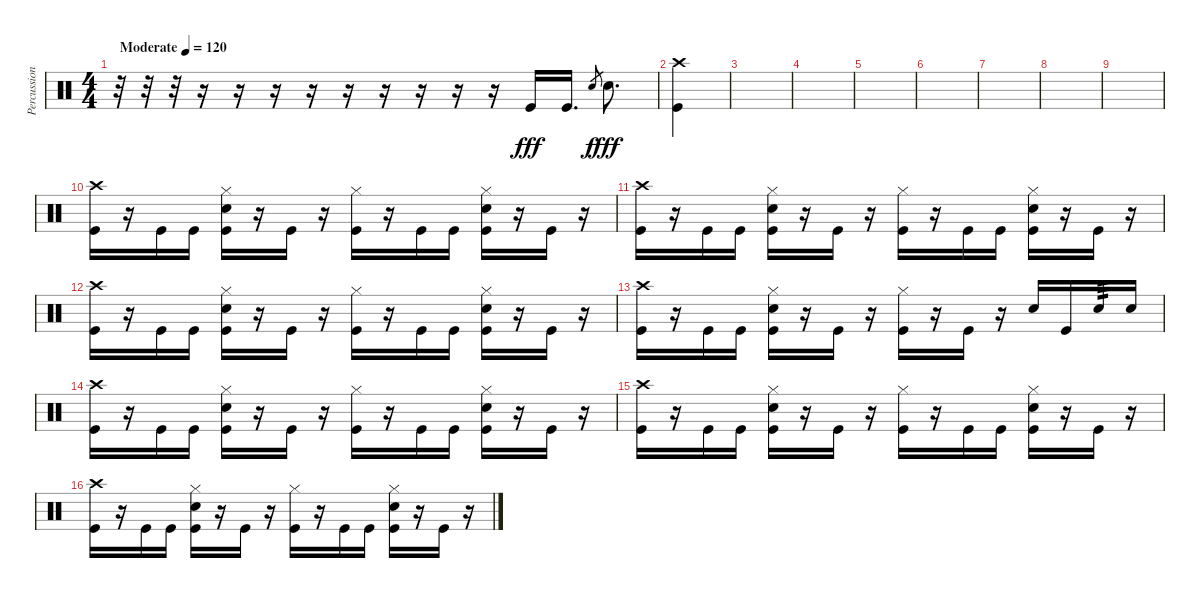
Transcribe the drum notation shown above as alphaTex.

\track ("Percussion" "Percussion") {instrument percussion}
\staff {score}
\articulation defaults
\ts (4 4)
\tempo (120 "Moderate")
\clef neutral
\ks c
r.32{dy fff} r.32 r.32 r.16 r.16 r.16 r.16 r.16 r.16 r.16 r.16 r.16 "Kick (hit)".16 "Kick (hit)".16{d} "Electric Snare (hit)".8{gr dy f} "Electric Snare (hit)".8{d dy fff} |
("Crash high (hit)" "Kick (hit)").4 |
|
|
|
|
|
|
|
("Crash high (hit)" "Kick (hit)").16 r.16 "Kick (hit)".16 "Kick (hit)".16 ("Hi-Hat (closed)" "Electric Snare (hit)" "Kick (hit)").16 r.16 "Kick (hit)".16 r.16 ("Hi-Hat (closed)" "Kick (hit)").16 r.16 "Kick (hit)".16 "Kick (hit)".16 ("Hi-Hat (closed)" "Electric Snare (hit)" "Kick (hit)").16 r.16 "Kick (hit)".16 r.16 |
("Crash high (hit)" "Kick (hit)").16 r.16 "Kick (hit)".16 "Kick (hit)".16 ("Hi-Hat (closed)" "Electric Snare (hit)" "Kick (hit)").16 r.16 "Kick (hit)".16 r.16 ("Hi-Hat (closed)" "Kick (hit)").16 r.16 "Kick (hit)".16 "Kick (hit)".16 ("Hi-Hat (closed)" "Electric Snare (hit)" "Kick (hit)").16 r.16 "Kick (hit)".16 r.16 |
("Crash high (hit)" "Kick (hit)").16 r.16 "Kick (hit)".16 "Kick (hit)".16 ("Hi-Hat (closed)" "Electric Snare (hit)" "Kick (hit)").16 r.16 "Kick (hit)".16 r.16 ("Hi-Hat (closed)" "Kick (hit)").16 r.16 "Kick (hit)".16 "Kick (hit)".16 ("Hi-Hat (closed)" "Electric Snare (hit)" "Kick (hit)").16 r.16 "Kick (hit)".16 r.16 |
("Crash high (hit)" "Kick (hit)").16 r.16 "Kick (hit)".16 "Kick (hit)".16 ("Hi-Hat (closed)" "Electric Snare (hit)" "Kick (hit)").16 r.16 "Kick (hit)".16 r.16 ("Hi-Hat (closed)" "Kick (hit)").16 r.16 "Kick (hit)".16 r.16 "Electric Snare (hit)".16 "Kick (hit)".16 "Electric Snare (hit)".16{tp 3} "Electric Snare (hit)".16 |
("Crash high (hit)" "Kick (hit)").16 r.16 "Kick (hit)".16 "Kick (hit)".16 ("Hi-Hat (closed)" "Electric Snare (hit)" "Kick (hit)").16 r.16 "Kick (hit)".16 r.16 ("Hi-Hat (closed)" "Kick (hit)").16 r.16 "Kick (hit)".16 "Kick (hit)".16 ("Hi-Hat (closed)" "Electric Snare (hit)" "Kick (hit)").16 r.16 "Kick (hit)".16 r.16 |
("Crash high (hit)" "Kick (hit)").16 r.16 "Kick (hit)".16 "Kick (hit)".16 ("Hi-Hat (closed)" "Electric Snare (hit)" "Kick (hit)").16 r.16 "Kick (hit)".16 r.16 ("Hi-Hat (closed)" "Kick (hit)").16 r.16 "Kick (hit)".16 "Kick (hit)".16 ("Hi-Hat (closed)" "Electric Snare (hit)" "Kick (hit)").16 r.16 "Kick (hit)".16 r.16 |
("Crash high (hit)" "Kick (hit)").16 r.16 "Kick (hit)".16 "Kick (hit)".16 ("Hi-Hat (closed)" "Electric Snare (hit)" "Kick (hit)").16 r.16 "Kick (hit)".16 r.16 ("Hi-Hat (closed)" "Kick (hit)").16 r.16 "Kick (hit)".16 "Kick (hit)".16 ("Hi-Hat (closed)" "Electric Snare (hit)" "Kick (hit)").16 r.16 "Kick (hit)".16 r.16
